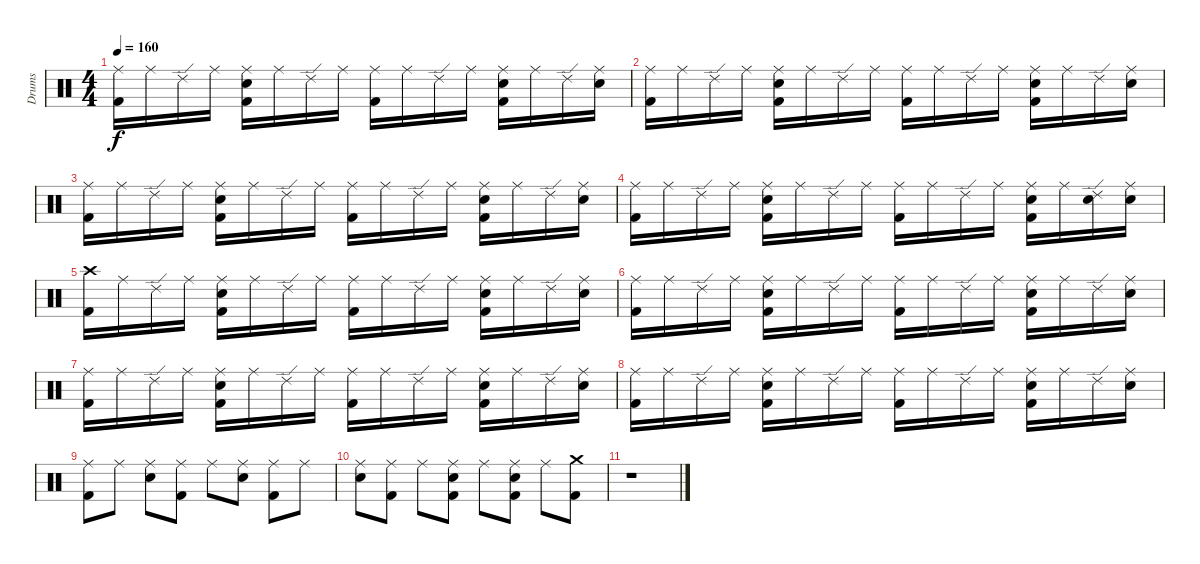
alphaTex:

\track ("Drums" "Drums") {instrument percussion}
\staff {score}
\articulation defaults
\ts (4 4)
\tempo 160
\clef neutral
\ks c
("Ride (middle)" "Kick (hit) 2").16{dy f} "Ride (middle)".16 "Ride (edge) 2".16 "Ride (middle)".16 ("Ride (middle)" "Electric Snare (hit)" "Kick (hit) 2").16 "Ride (middle)".16 "Ride (edge) 2".16 "Ride (middle)".16 ("Ride (middle)" "Kick (hit) 2").16 "Ride (middle)".16 "Ride (edge) 2".16 "Ride (middle)".16 ("Ride (middle)" "Electric Snare (hit)" "Kick (hit) 2").16 "Ride (middle)".16 "Ride (edge) 2".16 ("Ride (middle)" "Electric Snare (hit)").16 |
("Ride (middle)" "Kick (hit) 2").16 "Ride (middle)".16 "Ride (edge) 2".16 "Ride (middle)".16 ("Ride (middle)" "Electric Snare (hit)" "Kick (hit) 2").16 "Ride (middle)".16 "Ride (edge) 2".16 "Ride (middle)".16 ("Ride (middle)" "Kick (hit) 2").16 "Ride (middle)".16 "Ride (edge) 2".16 "Ride (middle)".16 ("Ride (middle)" "Electric Snare (hit)" "Kick (hit) 2").16 "Ride (middle)".16 "Ride (edge) 2".16 ("Ride (middle)" "Electric Snare (hit)").16 |
("Ride (middle)" "Kick (hit) 2").16 "Ride (middle)".16 "Ride (edge) 2".16 "Ride (middle)".16 ("Ride (middle)" "Electric Snare (hit)" "Kick (hit) 2").16 "Ride (middle)".16 "Ride (edge) 2".16 "Ride (middle)".16 ("Ride (middle)" "Kick (hit) 2").16 "Ride (middle)".16 "Ride (edge) 2".16 "Ride (middle)".16 ("Ride (middle)" "Electric Snare (hit)" "Kick (hit) 2").16 "Ride (middle)".16 "Ride (edge) 2".16 ("Ride (middle)" "Electric Snare (hit)").16 |
("Ride (middle)" "Kick (hit) 2").16 "Ride (middle)".16 "Ride (edge) 2".16 "Ride (middle)".16 ("Ride (middle)" "Electric Snare (hit)" "Kick (hit) 2").16 "Ride (middle)".16 "Ride (edge) 2".16 "Ride (middle)".16 ("Ride (middle)" "Kick (hit) 2").16 "Ride (middle)".16 "Ride (edge) 2".16 "Ride (middle)".16 ("Ride (middle)" "Electric Snare (hit)" "Kick (hit) 2").16 "Ride (middle)".16 ("Ride (edge) 2" "Electric Snare (hit)").16 ("Ride (middle)" "Electric Snare (hit)").16 |
("Crash high (hit)" "Kick (hit) 2").16 "Ride (middle)".16 "Ride (edge) 2".16 "Ride (middle)".16 ("Ride (middle)" "Electric Snare (hit)" "Kick (hit) 2").16 "Ride (middle)".16 "Ride (edge) 2".16 "Ride (middle)".16 ("Ride (middle)" "Kick (hit) 2").16 "Ride (middle)".16 "Ride (edge) 2".16 "Ride (middle)".16 ("Ride (middle)" "Electric Snare (hit)" "Kick (hit) 2").16 "Ride (middle)".16 "Ride (edge) 2".16 ("Ride (middle)" "Electric Snare (hit)").16 |
("Ride (middle)" "Kick (hit) 2").16 "Ride (middle)".16 "Ride (edge) 2".16 "Ride (middle)".16 ("Ride (middle)" "Electric Snare (hit)" "Kick (hit) 2").16 "Ride (middle)".16 "Ride (edge) 2".16 "Ride (middle)".16 ("Ride (middle)" "Kick (hit) 2").16 "Ride (middle)".16 "Ride (edge) 2".16 "Ride (middle)".16 ("Ride (middle)" "Electric Snare (hit)" "Kick (hit) 2").16 "Ride (middle)".16 "Ride (edge) 2".16 ("Ride (middle)" "Electric Snare (hit)").16 |
("Ride (middle)" "Kick (hit) 2").16 "Ride (middle)".16 "Ride (edge) 2".16 "Ride (middle)".16 ("Ride (middle)" "Electric Snare (hit)" "Kick (hit) 2").16 "Ride (middle)".16 "Ride (edge) 2".16 "Ride (middle)".16 ("Ride (middle)" "Kick (hit) 2").16 "Ride (middle)".16 "Ride (edge) 2".16 "Ride (middle)".16 ("Ride (middle)" "Electric Snare (hit)" "Kick (hit) 2").16 "Ride (middle)".16 "Ride (edge) 2".16 ("Ride (middle)" "Electric Snare (hit)").16 |
("Ride (middle)" "Kick (hit) 2").16 "Ride (middle)".16 "Ride (edge) 2".16 "Ride (middle)".16 ("Ride (middle)" "Electric Snare (hit)" "Kick (hit) 2").16 "Ride (middle)".16 "Ride (edge) 2".16 "Ride (middle)".16 ("Ride (middle)" "Kick (hit) 2").16 "Ride (middle)".16 "Ride (edge) 2".16 "Ride (middle)".16 ("Ride (middle)" "Electric Snare (hit)" "Kick (hit) 2").16 "Ride (middle)".16 "Ride (edge) 2".16 ("Ride (middle)" "Electric Snare (hit)").16 |
("Ride (middle)" "Kick (hit) 2").8 "Ride (middle)".8 ("Ride (middle)" "Electric Snare (hit)").8 ("Ride (middle)" "Kick (hit) 2").8 "Ride (middle)".8 ("Ride (middle)" "Electric Snare (hit)").8 ("Ride (middle)" "Kick (hit) 2").8 "Ride (middle)".8 |
("Ride (middle)" "Electric Snare (hit)").8 ("Ride (middle)" "Kick (hit) 2").8 "Ride (middle)".8 ("Ride (middle)" "Electric Snare (hit)" "Kick (hit) 2").8 "Ride (middle)".8 ("Ride (middle)" "Electric Snare (hit)" "Kick (hit) 2").8 "Ride (middle)".8 ("Crash medium (hit)" "Kick (hit) 2").8 |
r.1
